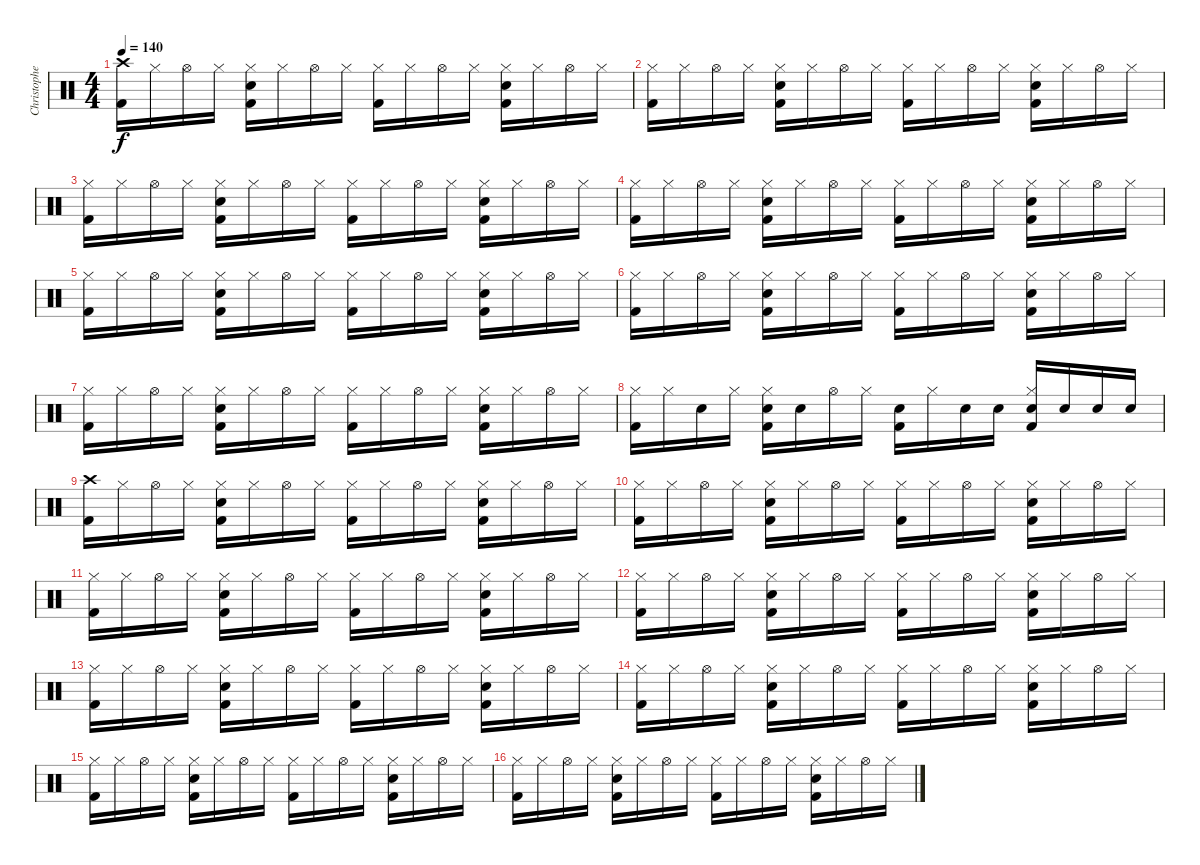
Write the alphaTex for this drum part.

\track ("Christopher Lawrence " "Christophe") {instrument percussion}
\staff {score}
\articulation defaults
\ts (4 4)
\tempo 140
\clef neutral
\ks c
("Crash high (hit)" "Kick (hit) 2").16{dy f} "Hi-Hat (closed)".16 "Hi-Hat (open)".16 "Hi-Hat (closed)".16 ("Hi-Hat (closed)" "Hand Clap (hit)" "Kick (hit) 2").16 "Hi-Hat (closed)".16 "Hi-Hat (open)".16 "Hi-Hat (closed)".16 ("Hi-Hat (closed)" "Kick (hit) 2").16 "Hi-Hat (closed)".16 "Hi-Hat (open)".16 "Hi-Hat (closed)".16 ("Hi-Hat (closed)" "Hand Clap (hit)" "Kick (hit) 2").16 "Hi-Hat (closed)".16 "Hi-Hat (open)".16 "Hi-Hat (closed)".16 |
("Hi-Hat (closed)" "Kick (hit) 2").16 "Hi-Hat (closed)".16 "Hi-Hat (open)".16 "Hi-Hat (closed)".16 ("Hi-Hat (closed)" "Hand Clap (hit)" "Kick (hit) 2").16 "Hi-Hat (closed)".16 "Hi-Hat (open)".16 "Hi-Hat (closed)".16 ("Hi-Hat (closed)" "Kick (hit) 2").16 "Hi-Hat (closed)".16 "Hi-Hat (open)".16 "Hi-Hat (closed)".16 ("Hi-Hat (closed)" "Hand Clap (hit)" "Kick (hit) 2").16 "Hi-Hat (closed)".16 "Hi-Hat (open)".16 "Hi-Hat (closed)".16 |
("Hi-Hat (closed)" "Kick (hit) 2").16 "Hi-Hat (closed)".16 "Hi-Hat (open)".16 "Hi-Hat (closed)".16 ("Hi-Hat (closed)" "Hand Clap (hit)" "Kick (hit) 2").16 "Hi-Hat (closed)".16 "Hi-Hat (open)".16 "Hi-Hat (closed)".16 ("Hi-Hat (closed)" "Kick (hit) 2").16 "Hi-Hat (closed)".16 "Hi-Hat (open)".16 "Hi-Hat (closed)".16 ("Hi-Hat (closed)" "Hand Clap (hit)" "Kick (hit) 2").16 "Hi-Hat (closed)".16 "Hi-Hat (open)".16 "Hi-Hat (closed)".16 |
("Hi-Hat (closed)" "Kick (hit) 2").16 "Hi-Hat (closed)".16 "Hi-Hat (open)".16 "Hi-Hat (closed)".16 ("Hi-Hat (closed)" "Hand Clap (hit)" "Kick (hit) 2").16 "Hi-Hat (closed)".16 "Hi-Hat (open)".16 "Hi-Hat (closed)".16 ("Hi-Hat (closed)" "Kick (hit) 2").16 "Hi-Hat (closed)".16 "Hi-Hat (open)".16 "Hi-Hat (closed)".16 ("Hi-Hat (closed)" "Hand Clap (hit)" "Kick (hit) 2").16 "Hi-Hat (closed)".16 "Hi-Hat (open)".16 "Hi-Hat (closed)".16 |
("Hi-Hat (closed)" "Kick (hit) 2").16 "Hi-Hat (closed)".16 "Hi-Hat (open)".16 "Hi-Hat (closed)".16 ("Hi-Hat (closed)" "Hand Clap (hit)" "Kick (hit) 2").16 "Hi-Hat (closed)".16 "Hi-Hat (open)".16 "Hi-Hat (closed)".16 ("Hi-Hat (closed)" "Kick (hit) 2").16 "Hi-Hat (closed)".16 "Hi-Hat (open)".16 "Hi-Hat (closed)".16 ("Hi-Hat (closed)" "Hand Clap (hit)" "Kick (hit) 2").16 "Hi-Hat (closed)".16 "Hi-Hat (open)".16 "Hi-Hat (closed)".16 |
("Hi-Hat (closed)" "Kick (hit) 2").16 "Hi-Hat (closed)".16 "Hi-Hat (open)".16 "Hi-Hat (closed)".16 ("Hi-Hat (closed)" "Hand Clap (hit)" "Kick (hit) 2").16 "Hi-Hat (closed)".16 "Hi-Hat (open)".16 "Hi-Hat (closed)".16 ("Hi-Hat (closed)" "Kick (hit) 2").16 "Hi-Hat (closed)".16 "Hi-Hat (open)".16 "Hi-Hat (closed)".16 ("Hi-Hat (closed)" "Hand Clap (hit)" "Kick (hit) 2").16 "Hi-Hat (closed)".16 "Hi-Hat (open)".16 "Hi-Hat (closed)".16 |
("Hi-Hat (closed)" "Kick (hit) 2").16 "Hi-Hat (closed)".16 "Hi-Hat (open)".16 "Hi-Hat (closed)".16 ("Hi-Hat (closed)" "Hand Clap (hit)" "Kick (hit) 2").16 "Hi-Hat (closed)".16 "Hi-Hat (open)".16 "Hi-Hat (closed)".16 ("Hi-Hat (closed)" "Kick (hit) 2").16 "Hi-Hat (closed)".16 "Hi-Hat (open)".16 "Hi-Hat (closed)".16 ("Hi-Hat (closed)" "Hand Clap (hit)" "Kick (hit) 2").16 "Hi-Hat (closed)".16 "Hi-Hat (open)".16 "Hi-Hat (closed)".16 |
("Hi-Hat (closed)" "Kick (hit) 2").16 "Hi-Hat (closed)".16 "Snare (hit) 2".16 "Hi-Hat (closed)".16 ("Hi-Hat (closed)" "Hand Clap (hit)" "Kick (hit) 2").16 "Snare (hit) 2".16 "Hi-Hat (open)".16 "Hi-Hat (closed)".16 ("Snare (hit) 2" "Kick (hit) 2").16 "Hi-Hat (closed)".16 "Snare (hit) 2".16 "Snare (hit) 2".16 ("Hi-Hat (closed)" "Hand Clap (hit)" "Kick (hit) 2").16 "Snare (hit) 2".16 "Snare (hit) 2".16 "Snare (hit) 2".16 |
("Crash high (hit)" "Kick (hit) 2").16 "Hi-Hat (closed)".16 "Hi-Hat (open)".16 "Hi-Hat (closed)".16 ("Hi-Hat (closed)" "Hand Clap (hit)" "Kick (hit) 2").16 "Hi-Hat (closed)".16 "Hi-Hat (open)".16 "Hi-Hat (closed)".16 ("Hi-Hat (closed)" "Kick (hit) 2").16 "Hi-Hat (closed)".16 "Hi-Hat (open)".16 "Hi-Hat (closed)".16 ("Hi-Hat (closed)" "Hand Clap (hit)" "Kick (hit) 2").16 "Hi-Hat (closed)".16 "Hi-Hat (open)".16 "Hi-Hat (closed)".16 |
("Hi-Hat (closed)" "Kick (hit) 2").16 "Hi-Hat (closed)".16 "Hi-Hat (open)".16 "Hi-Hat (closed)".16 ("Hi-Hat (closed)" "Hand Clap (hit)" "Kick (hit) 2").16 "Hi-Hat (closed)".16 "Hi-Hat (open)".16 "Hi-Hat (closed)".16 ("Hi-Hat (closed)" "Kick (hit) 2").16 "Hi-Hat (closed)".16 "Hi-Hat (open)".16 "Hi-Hat (closed)".16 ("Hi-Hat (closed)" "Hand Clap (hit)" "Kick (hit) 2").16 "Hi-Hat (closed)".16 "Hi-Hat (open)".16 "Hi-Hat (closed)".16 |
("Hi-Hat (closed)" "Kick (hit) 2").16 "Hi-Hat (closed)".16 "Hi-Hat (open)".16 "Hi-Hat (closed)".16 ("Hi-Hat (closed)" "Hand Clap (hit)" "Kick (hit) 2").16 "Hi-Hat (closed)".16 "Hi-Hat (open)".16 "Hi-Hat (closed)".16 ("Hi-Hat (closed)" "Kick (hit) 2").16 "Hi-Hat (closed)".16 "Hi-Hat (open)".16 "Hi-Hat (closed)".16 ("Hi-Hat (closed)" "Hand Clap (hit)" "Kick (hit) 2").16 "Hi-Hat (closed)".16 "Hi-Hat (open)".16 "Hi-Hat (closed)".16 |
("Hi-Hat (closed)" "Kick (hit) 2").16 "Hi-Hat (closed)".16 "Hi-Hat (open)".16 "Hi-Hat (closed)".16 ("Hi-Hat (closed)" "Hand Clap (hit)" "Kick (hit) 2").16 "Hi-Hat (closed)".16 "Hi-Hat (open)".16 "Hi-Hat (closed)".16 ("Hi-Hat (closed)" "Kick (hit) 2").16 "Hi-Hat (closed)".16 "Hi-Hat (open)".16 "Hi-Hat (closed)".16 ("Hi-Hat (closed)" "Hand Clap (hit)" "Kick (hit) 2").16 "Hi-Hat (closed)".16 "Hi-Hat (open)".16 "Hi-Hat (closed)".16 |
("Hi-Hat (closed)" "Kick (hit) 2").16 "Hi-Hat (closed)".16 "Hi-Hat (open)".16 "Hi-Hat (closed)".16 ("Hi-Hat (closed)" "Hand Clap (hit)" "Kick (hit) 2").16 "Hi-Hat (closed)".16 "Hi-Hat (open)".16 "Hi-Hat (closed)".16 ("Hi-Hat (closed)" "Kick (hit) 2").16 "Hi-Hat (closed)".16 "Hi-Hat (open)".16 "Hi-Hat (closed)".16 ("Hi-Hat (closed)" "Hand Clap (hit)" "Kick (hit) 2").16 "Hi-Hat (closed)".16 "Hi-Hat (open)".16 "Hi-Hat (closed)".16 |
("Hi-Hat (closed)" "Kick (hit) 2").16 "Hi-Hat (closed)".16 "Hi-Hat (open)".16 "Hi-Hat (closed)".16 ("Hi-Hat (closed)" "Hand Clap (hit)" "Kick (hit) 2").16 "Hi-Hat (closed)".16 "Hi-Hat (open)".16 "Hi-Hat (closed)".16 ("Hi-Hat (closed)" "Kick (hit) 2").16 "Hi-Hat (closed)".16 "Hi-Hat (open)".16 "Hi-Hat (closed)".16 ("Hi-Hat (closed)" "Hand Clap (hit)" "Kick (hit) 2").16 "Hi-Hat (closed)".16 "Hi-Hat (open)".16 "Hi-Hat (closed)".16 |
("Hi-Hat (closed)" "Kick (hit) 2").16 "Hi-Hat (closed)".16 "Hi-Hat (open)".16 "Hi-Hat (closed)".16 ("Hi-Hat (closed)" "Hand Clap (hit)" "Kick (hit) 2").16 "Hi-Hat (closed)".16 "Hi-Hat (open)".16 "Hi-Hat (closed)".16 ("Hi-Hat (closed)" "Kick (hit) 2").16 "Hi-Hat (closed)".16 "Hi-Hat (open)".16 "Hi-Hat (closed)".16 ("Hi-Hat (closed)" "Hand Clap (hit)" "Kick (hit) 2").16 "Hi-Hat (closed)".16 "Hi-Hat (open)".16 "Hi-Hat (closed)".16 |
("Hi-Hat (closed)" "Kick (hit) 2").16 "Hi-Hat (closed)".16 "Hi-Hat (open)".16 "Hi-Hat (closed)".16 ("Hi-Hat (closed)" "Hand Clap (hit)" "Kick (hit) 2").16 "Hi-Hat (closed)".16 "Hi-Hat (open)".16 "Hi-Hat (closed)".16 ("Hi-Hat (closed)" "Kick (hit) 2").16 "Hi-Hat (closed)".16 "Hi-Hat (open)".16 "Hi-Hat (closed)".16 ("Hi-Hat (closed)" "Hand Clap (hit)" "Kick (hit) 2").16 "Hi-Hat (closed)".16 "Hi-Hat (open)".16 "Hi-Hat (closed)".16
